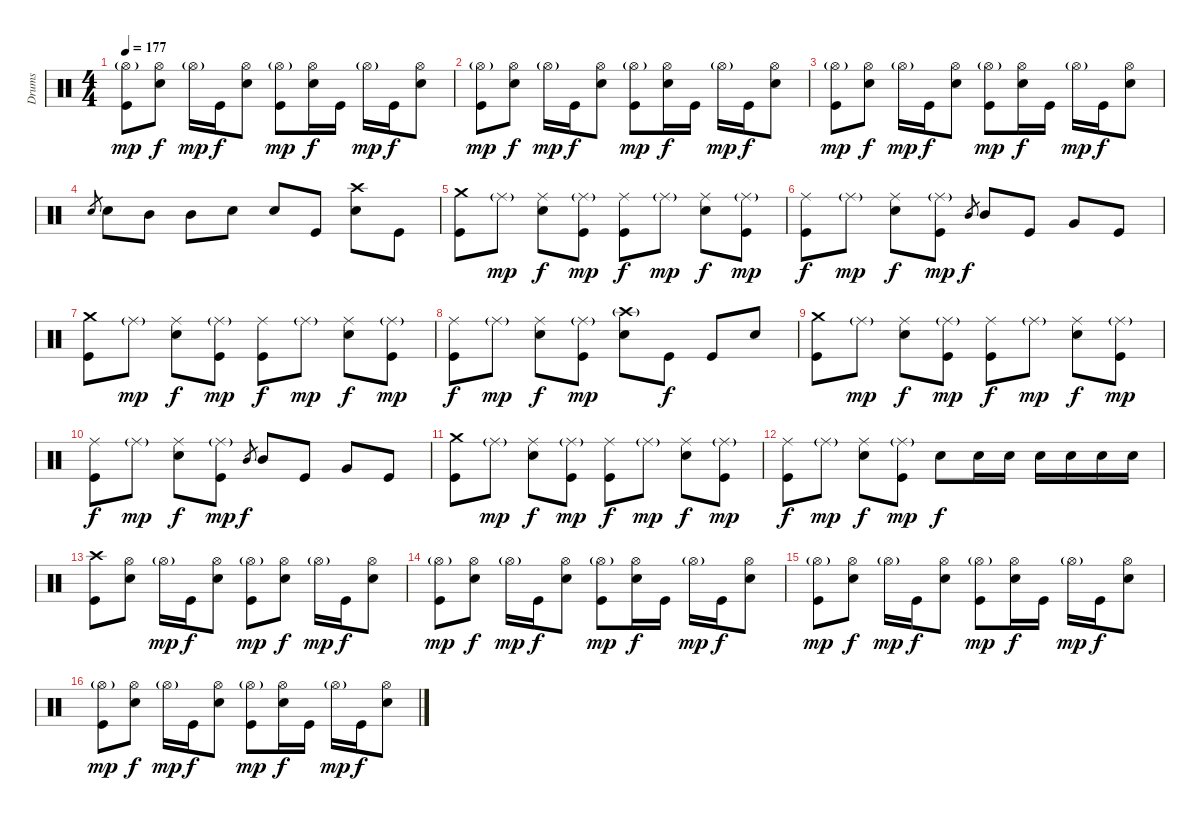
\track ("Drums" "Drums") {instrument percussion}
\staff {score}
\articulation defaults
\ts (4 4)
\tempo 177
\clef neutral
\ks c
("Hi-Hat (open)"{g} "Kick (hit)").8{dy mp} ("Hi-Hat (open)" "Electric Snare (hit)").8{dy f} "Hi-Hat (open)"{g}.16{dy mp} "Kick (hit)".16{dy f} ("Hi-Hat (open)" "Electric Snare (hit)").8 ("Hi-Hat (open)"{g} "Kick (hit)").8{dy mp} ("Hi-Hat (open)" "Electric Snare (hit)").16{dy f} "Kick (hit)".16 "Hi-Hat (open)"{g}.16{dy mp} "Kick (hit)".16{dy f} ("Hi-Hat (open)" "Electric Snare (hit)").8 |
("Hi-Hat (open)"{g} "Kick (hit)").8{dy mp} ("Hi-Hat (open)" "Electric Snare (hit)").8{dy f} "Hi-Hat (open)"{g}.16{dy mp} "Kick (hit)".16{dy f} ("Hi-Hat (open)" "Electric Snare (hit)").8 ("Hi-Hat (open)"{g} "Kick (hit)").8{dy mp} ("Hi-Hat (open)" "Electric Snare (hit)").16{dy f} "Kick (hit)".16 "Hi-Hat (open)"{g}.16{dy mp} "Kick (hit)".16{dy f} ("Hi-Hat (open)" "Electric Snare (hit)").8 |
("Hi-Hat (open)"{g} "Kick (hit)").8{dy mp} ("Hi-Hat (open)" "Electric Snare (hit)").8{dy f} "Hi-Hat (open)"{g}.16{dy mp} "Kick (hit)".16{dy f} ("Hi-Hat (open)" "Electric Snare (hit)").8 ("Hi-Hat (open)"{g} "Kick (hit)").8{dy mp} ("Hi-Hat (open)" "Electric Snare (hit)").16{dy f} "Kick (hit)".16 "Hi-Hat (open)"{g}.16{dy mp} "Kick (hit)".16{dy f} ("Hi-Hat (open)" "Electric Snare (hit)").8 |
"Electric Snare (hit)".8{gr} "Electric Snare (hit)".8 "Mid Tom (hit)".8 "Mid Tom (hit)".8 "Electric Snare (hit)".8 "Electric Snare (hit)".8 "Kick (hit)".8 ("Crash high (hit)" "Electric Snare (hit)").8 "Kick (hit)".8 |
("Crash medium (hit)" "Kick (hit)").8 "Ride (middle)"{g}.8{dy mp} ("Ride (middle)" "Electric Snare (hit)").8{dy f} ("Ride (middle)"{g} "Kick (hit)").8{dy mp} ("Ride (middle)" "Kick (hit)").8{dy f} "Ride (middle)"{g}.8{dy mp} ("Ride (middle)" "Electric Snare (hit)").8{dy f} ("Ride (middle)"{g} "Kick (hit)").8{dy mp} |
("Ride (middle)" "Kick (hit)").8{dy f} "Ride (middle)"{g}.8{dy mp} ("Ride (middle)" "Electric Snare (hit)").8{dy f} ("Ride (middle)"{g} "Kick (hit)").8{dy mp} "Mid Tom (hit)".8{gr dy f} "Mid Tom (hit)".8 "Kick (hit)".8 "Very Low Tom (hit)".8 "Kick (hit)".8 |
("Crash medium (hit)" "Kick (hit)").8 "Ride (middle)"{g}.8{dy mp} ("Ride (middle)" "Electric Snare (hit)").8{dy f} ("Ride (middle)"{g} "Kick (hit)").8{dy mp} ("Ride (middle)" "Kick (hit)").8{dy f} "Ride (middle)"{g}.8{dy mp} ("Ride (middle)" "Electric Snare (hit)").8{dy f} ("Ride (middle)"{g} "Kick (hit)").8{dy mp} |
("Ride (middle)" "Kick (hit)").8{dy f} "Ride (middle)"{g}.8{dy mp} ("Ride (middle)" "Electric Snare (hit)").8{dy f} ("Ride (middle)"{g} "Kick (hit)").8{dy mp} ("Crash high (hit)"{g} "Electric Snare (hit)").8 "Kick (hit)".8{dy f} "Kick (hit)".8 "Electric Snare (hit)".8 |
("Crash medium (hit)" "Kick (hit)").8 "Ride (middle)"{g}.8{dy mp} ("Ride (middle)" "Electric Snare (hit)").8{dy f} ("Ride (middle)"{g} "Kick (hit)").8{dy mp} ("Ride (middle)" "Kick (hit)").8{dy f} "Ride (middle)"{g}.8{dy mp} ("Ride (middle)" "Electric Snare (hit)").8{dy f} ("Ride (middle)"{g} "Kick (hit)").8{dy mp} |
("Ride (middle)" "Kick (hit)").8{dy f} "Ride (middle)"{g}.8{dy mp} ("Ride (middle)" "Electric Snare (hit)").8{dy f} ("Ride (middle)"{g} "Kick (hit)").8{dy mp} "Mid Tom (hit)".8{gr dy f} "Mid Tom (hit)".8 "Kick (hit)".8 "Very Low Tom (hit)".8 "Kick (hit)".8 |
("Crash medium (hit)" "Kick (hit)").8 "Ride (middle)"{g}.8{dy mp} ("Ride (middle)" "Electric Snare (hit)").8{dy f} ("Ride (middle)"{g} "Kick (hit)").8{dy mp} ("Ride (middle)" "Kick (hit)").8{dy f} "Ride (middle)"{g}.8{dy mp} ("Ride (middle)" "Electric Snare (hit)").8{dy f} ("Ride (middle)"{g} "Kick (hit)").8{dy mp} |
("Ride (middle)" "Kick (hit)").8{dy f} "Ride (middle)"{g}.8{dy mp} ("Ride (middle)" "Electric Snare (hit)").8{dy f} ("Ride (middle)"{g} "Kick (hit)").8{dy mp} "Electric Snare (hit)".8{dy f} "Electric Snare (hit)".16 "Electric Snare (hit)".16 "Electric Snare (hit)".16 "Electric Snare (hit)".16 "Electric Snare (hit)".16 "Electric Snare (hit)".16 |
("Crash high (hit)" "Kick (hit)").8 ("Hi-Hat (open)" "Electric Snare (hit)").8 "Hi-Hat (open)"{g}.16{dy mp} "Kick (hit)".16{dy f} ("Hi-Hat (open)" "Electric Snare (hit)").8 ("Hi-Hat (open)"{g} "Kick (hit)").8{dy mp} ("Hi-Hat (open)" "Electric Snare (hit)").8{dy f} "Hi-Hat (open)"{g}.16{dy mp} "Kick (hit)".16{dy f} ("Hi-Hat (open)" "Electric Snare (hit)").8 |
("Hi-Hat (open)"{g} "Kick (hit)").8{dy mp} ("Hi-Hat (open)" "Electric Snare (hit)").8{dy f} "Hi-Hat (open)"{g}.16{dy mp} "Kick (hit)".16{dy f} ("Hi-Hat (open)" "Electric Snare (hit)").8 ("Hi-Hat (open)"{g} "Kick (hit)").8{dy mp} ("Hi-Hat (open)" "Electric Snare (hit)").16{dy f} "Kick (hit)".16 "Hi-Hat (open)"{g}.16{dy mp} "Kick (hit)".16{dy f} ("Hi-Hat (open)" "Electric Snare (hit)").8 |
("Hi-Hat (open)"{g} "Kick (hit)").8{dy mp} ("Hi-Hat (open)" "Electric Snare (hit)").8{dy f} "Hi-Hat (open)"{g}.16{dy mp} "Kick (hit)".16{dy f} ("Hi-Hat (open)" "Electric Snare (hit)").8 ("Hi-Hat (open)"{g} "Kick (hit)").8{dy mp} ("Hi-Hat (open)" "Electric Snare (hit)").16{dy f} "Kick (hit)".16 "Hi-Hat (open)"{g}.16{dy mp} "Kick (hit)".16{dy f} ("Hi-Hat (open)" "Electric Snare (hit)").8 |
("Hi-Hat (open)"{g} "Kick (hit)").8{dy mp} ("Hi-Hat (open)" "Electric Snare (hit)").8{dy f} "Hi-Hat (open)"{g}.16{dy mp} "Kick (hit)".16{dy f} ("Hi-Hat (open)" "Electric Snare (hit)").8 ("Hi-Hat (open)"{g} "Kick (hit)").8{dy mp} ("Hi-Hat (open)" "Electric Snare (hit)").16{dy f} "Kick (hit)".16 "Hi-Hat (open)"{g}.16{dy mp} "Kick (hit)".16{dy f} ("Hi-Hat (open)" "Electric Snare (hit)").8
